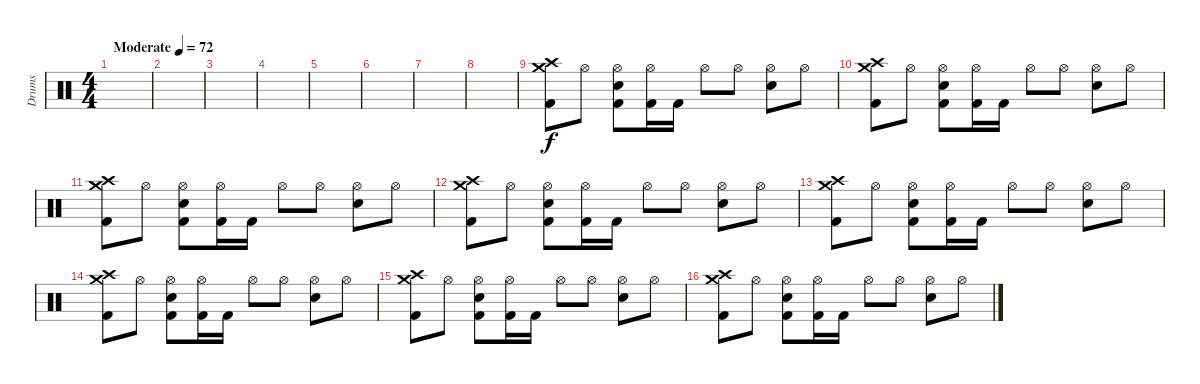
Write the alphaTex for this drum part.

\track ("Drums" "Drums") {instrument percussion}
\staff {score}
\articulation defaults
\ts (4 4)
\tempo (72 "Moderate")
\clef neutral
\ks c
|
|
|
|
|
|
|
|
("Crash medium (hit)" "Crash high (hit)" "Kick (hit) 2").8 "Hi-Hat (open)".8 ("Hi-Hat (open)" "Electric Snare (hit)" "Kick (hit) 2").8 ("Hi-Hat (open)" "Kick (hit) 2").16 "Kick (hit) 2".16 "Hi-Hat (open)".8 "Hi-Hat (open)".8 ("Hi-Hat (open)" "Electric Snare (hit)").8 "Hi-Hat (open)".8 |
("Crash medium (hit)" "Crash high (hit)" "Kick (hit) 2").8 "Hi-Hat (open)".8 ("Hi-Hat (open)" "Electric Snare (hit)" "Kick (hit) 2").8 ("Hi-Hat (open)" "Kick (hit) 2").16 "Kick (hit) 2".16 "Hi-Hat (open)".8 "Hi-Hat (open)".8 ("Hi-Hat (open)" "Electric Snare (hit)").8 "Hi-Hat (open)".8 |
("Crash medium (hit)" "Crash high (hit)" "Kick (hit) 2").8 "Hi-Hat (open)".8 ("Hi-Hat (open)" "Electric Snare (hit)" "Kick (hit) 2").8 ("Hi-Hat (open)" "Kick (hit) 2").16 "Kick (hit) 2".16 "Hi-Hat (open)".8 "Hi-Hat (open)".8 ("Hi-Hat (open)" "Electric Snare (hit)").8 "Hi-Hat (open)".8 |
("Crash medium (hit)" "Crash high (hit)" "Kick (hit) 2").8 "Hi-Hat (open)".8 ("Hi-Hat (open)" "Electric Snare (hit)" "Kick (hit) 2").8 ("Hi-Hat (open)" "Kick (hit) 2").16 "Kick (hit) 2".16 "Hi-Hat (open)".8 "Hi-Hat (open)".8 ("Hi-Hat (open)" "Electric Snare (hit)").8 "Hi-Hat (open)".8 |
("Crash medium (hit)" "Crash high (hit)" "Kick (hit) 2").8 "Hi-Hat (open)".8 ("Hi-Hat (open)" "Electric Snare (hit)" "Kick (hit) 2").8 ("Hi-Hat (open)" "Kick (hit) 2").16 "Kick (hit) 2".16 "Hi-Hat (open)".8 "Hi-Hat (open)".8 ("Hi-Hat (open)" "Electric Snare (hit)").8 "Hi-Hat (open)".8 |
("Crash medium (hit)" "Crash high (hit)" "Kick (hit) 2").8 "Hi-Hat (open)".8 ("Hi-Hat (open)" "Electric Snare (hit)" "Kick (hit) 2").8 ("Hi-Hat (open)" "Kick (hit) 2").16 "Kick (hit) 2".16 "Hi-Hat (open)".8 "Hi-Hat (open)".8 ("Hi-Hat (open)" "Electric Snare (hit)").8 "Hi-Hat (open)".8 |
("Crash medium (hit)" "Crash high (hit)" "Kick (hit) 2").8 "Hi-Hat (open)".8 ("Hi-Hat (open)" "Electric Snare (hit)" "Kick (hit) 2").8 ("Hi-Hat (open)" "Kick (hit) 2").16 "Kick (hit) 2".16 "Hi-Hat (open)".8 "Hi-Hat (open)".8 ("Hi-Hat (open)" "Electric Snare (hit)").8 "Hi-Hat (open)".8 |
("Crash medium (hit)" "Crash high (hit)" "Kick (hit) 2").8 "Hi-Hat (open)".8 ("Hi-Hat (open)" "Electric Snare (hit)" "Kick (hit) 2").8 ("Hi-Hat (open)" "Kick (hit) 2").16 "Kick (hit) 2".16 "Hi-Hat (open)".8 "Hi-Hat (open)".8 ("Hi-Hat (open)" "Electric Snare (hit)").8 "Hi-Hat (open)".8
